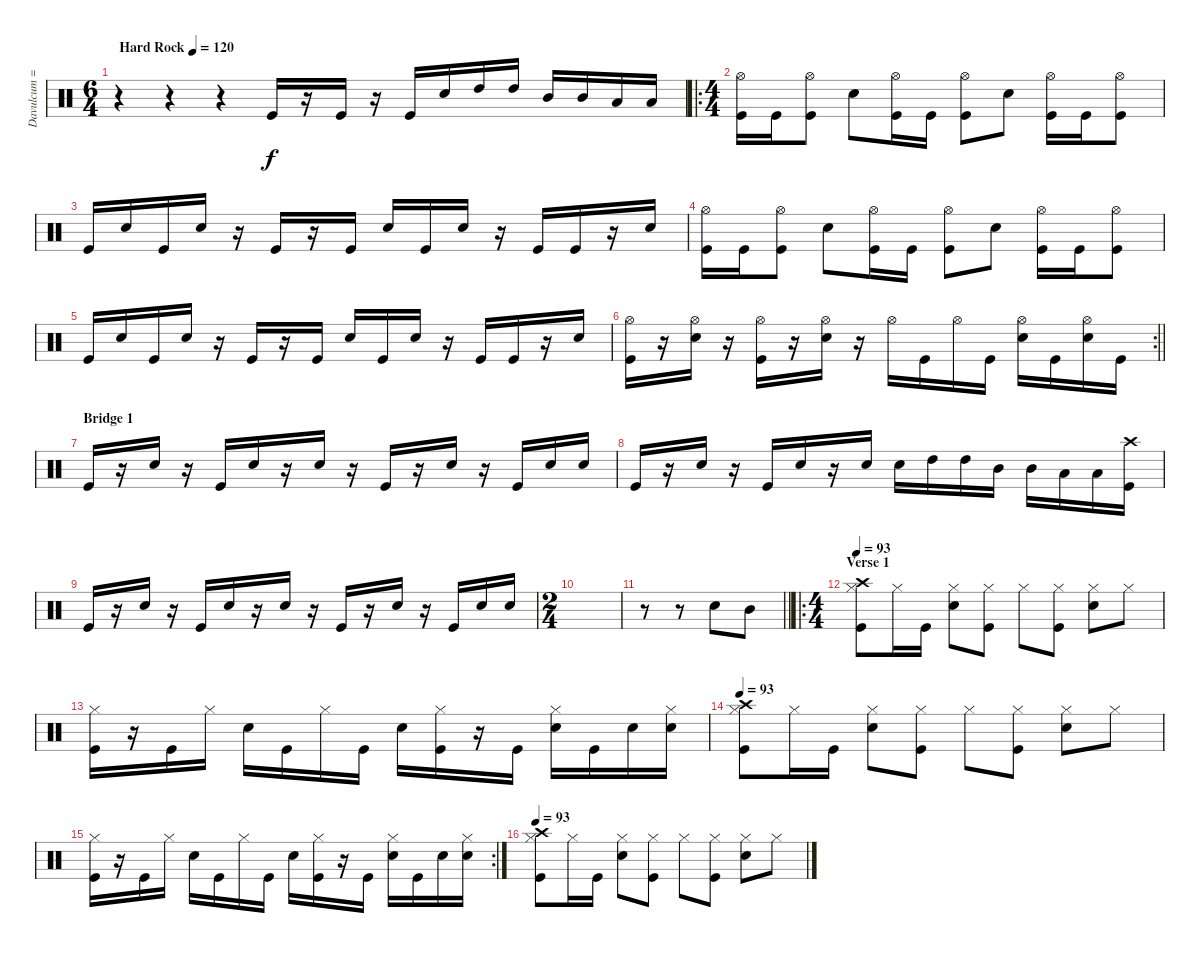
\track ("Davulcum =)" "Davulcum =") {instrument percussion}
\staff {score}
\articulation defaults
\ts (6 4)
\tempo (120 "Hard Rock")
\clef neutral
\ks c
r.4{dy f} r.4 r.4 "Kick (hit)".16 r.16 "Kick (hit)".16 r.16 "Kick (hit)".16 "Snare (hit) 2".16 "High Tom (hit)".16 "High Tom (hit)".16 "Mid Tom (hit)".16 "Mid Tom (hit)".16 "Low Tom (hit)".16 "Low Tom (hit)".16 |
\ro
\ts (4 4)
("Hi-Hat (open)" "Kick (hit)").16 "Kick (hit)".16 ("Hi-Hat (open)" "Kick (hit)").8 "Snare (hit) 2".8 ("Hi-Hat (open)" "Kick (hit)").16 "Kick (hit)".16 ("Hi-Hat (open)" "Kick (hit)").8 "Snare (hit) 2".8 ("Hi-Hat (open)" "Kick (hit)").16 "Kick (hit)".16 ("Hi-Hat (open)" "Kick (hit)").8 |
"Kick (hit)".16 "Snare (hit) 2".16 "Kick (hit)".16 "Snare (hit) 2".16 r.16 "Kick (hit)".16 r.16 "Kick (hit)".16 "Snare (hit) 2".16 "Kick (hit)".16 "Snare (hit) 2".16 r.16 "Kick (hit)".16 "Kick (hit)".16 r.16 "Snare (hit) 2".16 |
("Hi-Hat (open)" "Kick (hit)").16 "Kick (hit)".16 ("Hi-Hat (open)" "Kick (hit)").8 "Snare (hit) 2".8 ("Hi-Hat (open)" "Kick (hit)").16 "Kick (hit)".16 ("Hi-Hat (open)" "Kick (hit)").8 "Snare (hit) 2".8 ("Hi-Hat (open)" "Kick (hit)").16 "Kick (hit)".16 ("Hi-Hat (open)" "Kick (hit)").8 |
"Kick (hit)".16 "Snare (hit) 2".16 "Kick (hit)".16 "Snare (hit) 2".16 r.16 "Kick (hit)".16 r.16 "Kick (hit)".16 "Snare (hit) 2".16 "Kick (hit)".16 "Snare (hit) 2".16 r.16 "Kick (hit)".16 "Kick (hit)".16 r.16 "Snare (hit) 2".16 |
\rc 2
\barLineRight lightlight
("Hi-Hat (open)" "Kick (hit)").16 r.16 ("Hi-Hat (open)" "Snare (hit) 2").16 r.16 ("Hi-Hat (open)" "Kick (hit)").16 r.16 ("Hi-Hat (open)" "Snare (hit) 2").16 r.16 "Hi-Hat (open)".16 "Kick (hit)".16 "Hi-Hat (open)".16 "Kick (hit)".16 ("Hi-Hat (open)" "Snare (hit) 2").16 "Kick (hit)".16 ("Hi-Hat (open)" "Snare (hit) 2").16 "Kick (hit)".16 |
\section ("" "Bridge 1")
"Kick (hit)".16 r.16 "Snare (hit) 2".16 r.16 "Kick (hit)".16 "Snare (hit) 2".16 r.16 "Snare (hit) 2".16 r.16 "Kick (hit)".16 r.16 "Snare (hit) 2".16 r.16 "Kick (hit)".16 "Snare (hit) 2".16 "Snare (hit) 2".16 |
"Kick (hit)".16 r.16 "Snare (hit) 2".16 r.16 "Kick (hit)".16 "Snare (hit) 2".16 r.16 "Snare (hit) 2".16 "Snare (hit) 2".16 "High Tom (hit)".16 "High Tom (hit)".16 "Mid Tom (hit)".16 "Mid Tom (hit)".16 "Low Tom (hit)".16 "Low Tom (hit)".16 ("Crash high (hit)" "Kick (hit)").16 |
"Kick (hit)".16 r.16 "Snare (hit) 2".16 r.16 "Kick (hit)".16 "Snare (hit) 2".16 r.16 "Snare (hit) 2".16 r.16 "Kick (hit)".16 r.16 "Snare (hit) 2".16 r.16 "Kick (hit)".16 "Snare (hit) 2".16 "Snare (hit) 2".16 |
\ts (2 4)
|
\barLineRight lightlight
r.8 r.8 "Electric Snare (hit)".8 "Mid Tom (hit)".8 |
\ro
\ts (4 4)
\section ("" "Verse 1")
\tempo 93
("Crash high (hit)" "Hi-Hat (closed)" "Kick (hit)").8 "Hi-Hat (closed)".16 "Kick (hit)".16 ("Hi-Hat (closed)" "Snare (hit) 2").8 ("Hi-Hat (closed)" "Kick (hit)").8 "Hi-Hat (closed)".8 ("Hi-Hat (closed)" "Kick (hit)").8 ("Hi-Hat (closed)" "Snare (hit) 2").8 "Hi-Hat (closed)".8 |
("Hi-Hat (closed)" "Kick (hit)").16 r.16 "Kick (hit)".16 "Hi-Hat (closed)".16 "Snare (hit) 2".16 "Kick (hit)".16 "Hi-Hat (closed)".16 "Kick (hit)".16 "Snare (hit) 2".16 ("Hi-Hat (closed)" "Kick (hit)").16 r.16 "Kick (hit)".16 ("Hi-Hat (closed)" "Snare (hit) 2").16 "Kick (hit)".16 "Snare (hit) 2".16 ("Hi-Hat (closed)" "Snare (hit) 2").16 |
\tempo 93
("Crash high (hit)" "Hi-Hat (closed)" "Kick (hit)").8 "Hi-Hat (closed)".16 "Kick (hit)".16 ("Hi-Hat (closed)" "Snare (hit) 2").8 ("Hi-Hat (closed)" "Kick (hit)").8 "Hi-Hat (closed)".8 ("Hi-Hat (closed)" "Kick (hit)").8 ("Hi-Hat (closed)" "Snare (hit) 2").8 "Hi-Hat (closed)".8 |
\rc 2
("Hi-Hat (closed)" "Kick (hit)").16 r.16 "Kick (hit)".16 "Hi-Hat (closed)".16 "Snare (hit) 2".16 "Kick (hit)".16 "Hi-Hat (closed)".16 "Kick (hit)".16 "Snare (hit) 2".16 ("Hi-Hat (closed)" "Kick (hit)").16 r.16 "Kick (hit)".16 ("Hi-Hat (closed)" "Snare (hit) 2").16 "Kick (hit)".16 "Snare (hit) 2".16 ("Hi-Hat (closed)" "Snare (hit) 2").16 |
\tempo 93
("Crash high (hit)" "Hi-Hat (closed)" "Kick (hit)").8 "Hi-Hat (closed)".16 "Kick (hit)".16 ("Hi-Hat (closed)" "Snare (hit) 2").8 ("Hi-Hat (closed)" "Kick (hit)").8 "Hi-Hat (closed)".8 ("Hi-Hat (closed)" "Kick (hit)").8 ("Hi-Hat (closed)" "Snare (hit) 2").8 "Hi-Hat (closed)".8
